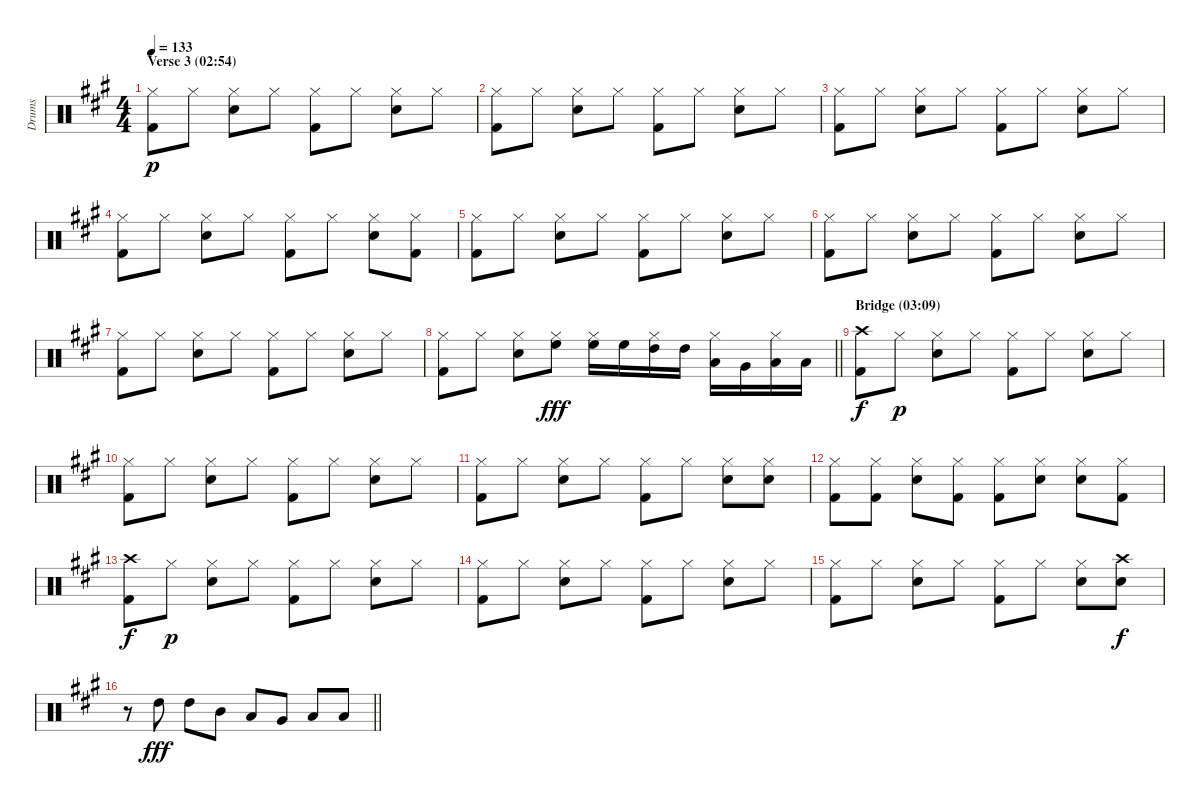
\track ("Drums" "Drums") {instrument percussion}
\staff {score}
\articulation defaults
\ts (4 4)
\section ("" "Verse 3 (02:54)")
\tempo 133
\clef neutral
\ks a
("Hi-Hat (closed)" "Kick (hit) 2").8{dy p} "Hi-Hat (closed)".8 ("Hi-Hat (closed)" "Snare (hit) 2").8 "Hi-Hat (closed)".8 ("Hi-Hat (closed)" "Kick (hit) 2").8 "Hi-Hat (closed)".8 ("Hi-Hat (closed)" "Snare (hit) 2").8 "Hi-Hat (closed)".8 |
("Hi-Hat (closed)" "Kick (hit) 2").8 "Hi-Hat (closed)".8 ("Hi-Hat (closed)" "Snare (hit) 2").8 "Hi-Hat (closed)".8 ("Hi-Hat (closed)" "Kick (hit) 2").8 "Hi-Hat (closed)".8 ("Hi-Hat (closed)" "Snare (hit) 2").8 "Hi-Hat (closed)".8 |
("Hi-Hat (closed)" "Kick (hit) 2").8 "Hi-Hat (closed)".8 ("Hi-Hat (closed)" "Snare (hit) 2").8 "Hi-Hat (closed)".8 ("Hi-Hat (closed)" "Kick (hit) 2").8 "Hi-Hat (closed)".8 ("Hi-Hat (closed)" "Snare (hit) 2").8 "Hi-Hat (closed)".8 |
("Hi-Hat (closed)" "Kick (hit) 2").8 "Hi-Hat (closed)".8 ("Hi-Hat (closed)" "Snare (hit) 2").8 "Hi-Hat (closed)".8 ("Hi-Hat (closed)" "Kick (hit) 2").8 "Hi-Hat (closed)".8 ("Hi-Hat (closed)" "Snare (hit) 2").8 ("Hi-Hat (closed)" "Kick (hit) 2").8 |
("Hi-Hat (closed)" "Kick (hit) 2").8 "Hi-Hat (closed)".8 ("Hi-Hat (closed)" "Snare (hit) 2").8 "Hi-Hat (closed)".8 ("Hi-Hat (closed)" "Kick (hit) 2").8 "Hi-Hat (closed)".8 ("Hi-Hat (closed)" "Snare (hit) 2").8 "Hi-Hat (closed)".8 |
("Hi-Hat (closed)" "Kick (hit) 2").8 "Hi-Hat (closed)".8 ("Hi-Hat (closed)" "Snare (hit) 2").8 "Hi-Hat (closed)".8 ("Hi-Hat (closed)" "Kick (hit) 2").8 "Hi-Hat (closed)".8 ("Hi-Hat (closed)" "Snare (hit) 2").8 "Hi-Hat (closed)".8 |
("Hi-Hat (closed)" "Kick (hit) 2").8 "Hi-Hat (closed)".8 ("Hi-Hat (closed)" "Snare (hit) 2").8 "Hi-Hat (closed)".8 ("Hi-Hat (closed)" "Kick (hit) 2").8 "Hi-Hat (closed)".8 ("Hi-Hat (closed)" "Snare (hit) 2").8 "Hi-Hat (closed)".8 |
\barLineRight lightlight
("Hi-Hat (closed)" "Kick (hit) 2").8 "Hi-Hat (closed)".8 ("Hi-Hat (closed)" "Snare (hit) 2").8 ("Hi-Hat (closed)" "High Floor Tom (hit)").8{dy fff} ("Hi-Hat (closed)" "High Floor Tom (hit)").16 "High Floor Tom (hit)".16 ("Hi-Hat (closed)" "High Tom (hit)").16 "High Tom (hit)".16 ("Hi-Hat (closed)" "Low Tom (hit)").16 "Very Low Tom (hit)".16 ("Hi-Hat (closed)" "Low Floor Tom (hit)").16 "Low Floor Tom (hit)".16 |
\section ("" "Bridge (03:09)")
("Crash high (hit)" "Kick (hit) 2").8{dy f} "Hi-Hat (closed)".8{dy p} ("Hi-Hat (closed)" "Snare (hit) 2").8 "Hi-Hat (closed)".8 ("Hi-Hat (closed)" "Kick (hit) 2").8 "Hi-Hat (closed)".8 ("Hi-Hat (closed)" "Snare (hit) 2").8 "Hi-Hat (closed)".8 |
("Hi-Hat (closed)" "Kick (hit) 2").8 "Hi-Hat (closed)".8 ("Hi-Hat (closed)" "Snare (hit) 2").8 "Hi-Hat (closed)".8 ("Hi-Hat (closed)" "Kick (hit) 2").8 "Hi-Hat (closed)".8 ("Hi-Hat (closed)" "Snare (hit) 2").8 "Hi-Hat (closed)".8 |
("Hi-Hat (closed)" "Kick (hit) 2").8 "Hi-Hat (closed)".8 ("Hi-Hat (closed)" "Snare (hit) 2").8 "Hi-Hat (closed)".8 ("Hi-Hat (closed)" "Kick (hit) 2").8 "Hi-Hat (closed)".8 ("Hi-Hat (closed)" "Snare (hit) 2").8 ("Hi-Hat (closed)" "Snare (hit) 2").8 |
("Hi-Hat (closed)" "Kick (hit) 2").8 ("Hi-Hat (closed)" "Kick (hit) 2").8 ("Hi-Hat (closed)" "Snare (hit) 2").8 ("Hi-Hat (closed)" "Kick (hit) 2").8 ("Hi-Hat (closed)" "Kick (hit) 2").8 ("Hi-Hat (closed)" "Snare (hit) 2").8 ("Hi-Hat (closed)" "Snare (hit) 2").8 ("Hi-Hat (closed)" "Kick (hit) 2").8 |
("Crash high (hit)" "Kick (hit) 2").8{dy f} "Hi-Hat (closed)".8{dy p} ("Hi-Hat (closed)" "Snare (hit) 2").8 "Hi-Hat (closed)".8 ("Hi-Hat (closed)" "Kick (hit) 2").8 "Hi-Hat (closed)".8 ("Hi-Hat (closed)" "Snare (hit) 2").8 "Hi-Hat (closed)".8 |
("Hi-Hat (closed)" "Kick (hit) 2").8 "Hi-Hat (closed)".8 ("Hi-Hat (closed)" "Snare (hit) 2").8 "Hi-Hat (closed)".8 ("Hi-Hat (closed)" "Kick (hit) 2").8 "Hi-Hat (closed)".8 ("Hi-Hat (closed)" "Snare (hit) 2").8 "Hi-Hat (closed)".8 |
("Hi-Hat (closed)" "Kick (hit) 2").8 "Hi-Hat (closed)".8 ("Hi-Hat (closed)" "Snare (hit) 2").8 "Hi-Hat (closed)".8 ("Hi-Hat (closed)" "Kick (hit) 2").8 "Hi-Hat (closed)".8 ("Hi-Hat (closed)" "Snare (hit) 2").8 ("Crash high (hit)" "Snare (hit) 2").8{dy f} |
\barLineRight lightlight
r.8 "High Tom (hit)".8{dy fff} "High Tom (hit)".8 "Mid Tom (hit)".8 "Low Tom (hit)".8 "Very Low Tom (hit)".8 "Low Floor Tom (hit)".8 "Low Floor Tom (hit)".8
